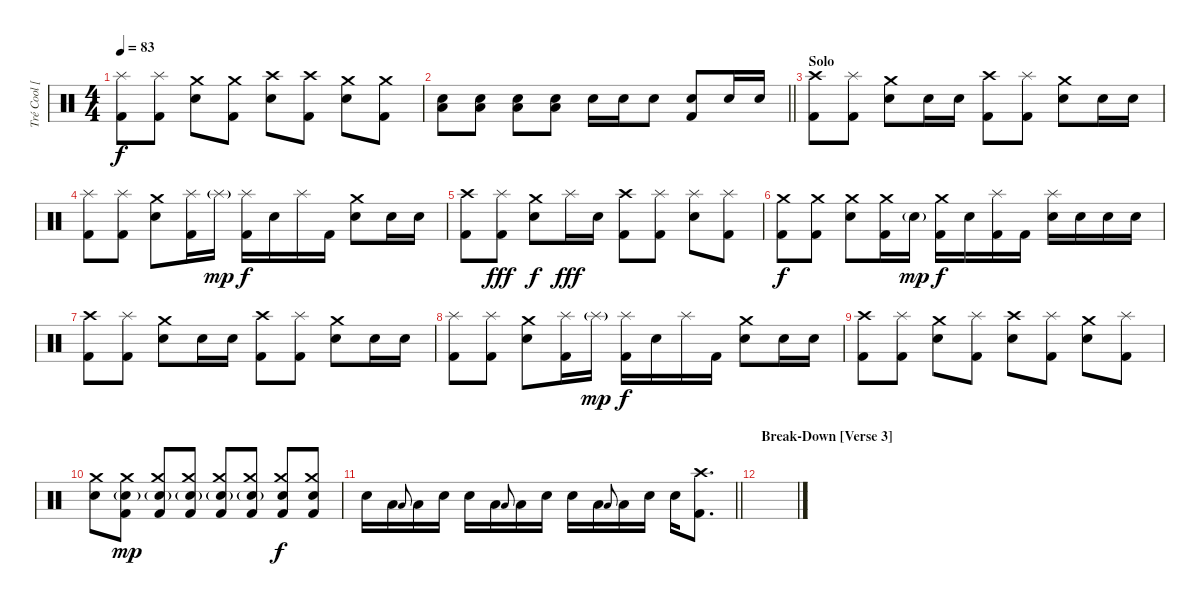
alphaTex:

\track ("Tré Cool [Drums]" "Tré Cool [") {instrument percussion}
\staff {score}
\articulation defaults
\ts (4 4)
\tempo 83
\clef neutral
\ks c
("Splash (hit)" "Kick (hit) 2").8{dy f} ("Splash (hit)" "Kick (hit) 2").8 ("Crash medium (hit)" "Electric Snare (hit)").8 ("Crash medium (hit)" "Kick (hit) 2").8 ("Crash high (hit)" "Electric Snare (hit)").8 ("Crash high (hit)" "Kick (hit) 2").8 ("Crash medium (hit)" "Electric Snare (hit)").8 ("Crash medium (hit)" "Kick (hit) 2").8 |
\barLineRight lightlight
("Low Floor Tom (hit)" "Electric Snare (hit)").8 ("Low Floor Tom (hit)" "Electric Snare (hit)").8 ("Low Floor Tom (hit)" "Electric Snare (hit)").8 ("Low Floor Tom (hit)" "Electric Snare (hit)").8 "Electric Snare (hit)".16 "Electric Snare (hit)".16 "Electric Snare (hit)".8 ("Electric Snare (hit)" "Kick (hit) 2").8 "Electric Snare (hit)".16 "Electric Snare (hit)".16 |
\section ("" "Solo")
("Crash high (hit)" "Kick (hit) 2").8 ("Splash (hit)" "Kick (hit) 2").8 ("Crash medium (hit)" "Electric Snare (hit)").8 "Electric Snare (hit)".16 "Electric Snare (hit)".16 ("Crash high (hit)" "Kick (hit) 2").8 ("Splash (hit)" "Kick (hit) 2").8 ("Crash medium (hit)" "Electric Snare (hit)").8 "Electric Snare (hit)".16 "Electric Snare (hit)".16 |
("Splash (hit)" "Kick (hit) 2").8 ("Splash (hit)" "Kick (hit) 2").8 ("Crash medium (hit)" "Electric Snare (hit)").8 ("Splash (hit)" "Kick (hit) 2").16 "Splash (hit)"{g}.16{dy mp} ("Splash (hit)" "Kick (hit) 2").16{dy f} "Electric Snare (hit)".16 "Splash (hit)".16 "Kick (hit) 2".16 ("Crash medium (hit)" "Electric Snare (hit)").8 "Electric Snare (hit)".16 "Electric Snare (hit)".16 |
("Crash high (hit)" "Kick (hit) 2").8 ("Splash (hit)" "Kick (hit) 2").8{dy fff} ("Crash medium (hit)" "Electric Snare (hit)").8{dy f} "Splash (hit)".16{dy fff} "Electric Snare (hit)".16 ("Crash high (hit)" "Kick (hit) 2").8 ("Splash (hit)" "Kick (hit) 2").8 ("Splash (hit)" "Electric Snare (hit)").8 ("Splash (hit)" "Kick (hit) 2").8 |
("Crash medium (hit)" "Kick (hit) 2").8{dy f} ("Crash medium (hit)" "Kick (hit) 2").8 ("Crash medium (hit)" "Electric Snare (hit)").8 ("Crash medium (hit)" "Kick (hit) 2").16 "Electric Snare (hit)"{g}.16{dy mp} ("Crash medium (hit)" "Kick (hit) 2").16{dy f} "Electric Snare (hit)".16 ("Splash (hit)" "Kick (hit) 2").16 "Kick (hit) 2".16 ("Splash (hit)" "Electric Snare (hit)").16 "Electric Snare (hit)".16 "Electric Snare (hit)".16 "Electric Snare (hit)".16 |
("Crash high (hit)" "Kick (hit) 2").8 ("Splash (hit)" "Kick (hit) 2").8 ("Crash medium (hit)" "Electric Snare (hit)").8 "Electric Snare (hit)".16 "Electric Snare (hit)".16 ("Crash high (hit)" "Kick (hit) 2").8 ("Splash (hit)" "Kick (hit) 2").8 ("Crash medium (hit)" "Electric Snare (hit)").8 "Electric Snare (hit)".16 "Electric Snare (hit)".16 |
("Splash (hit)" "Kick (hit) 2").8 ("Splash (hit)" "Kick (hit) 2").8 ("Crash medium (hit)" "Electric Snare (hit)").8 ("Splash (hit)" "Kick (hit) 2").16 "Splash (hit)"{g}.16{dy mp} ("Splash (hit)" "Kick (hit) 2").16{dy f} "Electric Snare (hit)".16 "Splash (hit)".16 "Kick (hit) 2".16 ("Crash medium (hit)" "Electric Snare (hit)").8 "Electric Snare (hit)".16 "Electric Snare (hit)".16 |
("Crash high (hit)" "Kick (hit) 2").8 ("Splash (hit)" "Kick (hit) 2").8 ("Crash medium (hit)" "Electric Snare (hit)").8 ("Splash (hit)" "Kick (hit) 2").8 ("Crash high (hit)" "Electric Snare (hit)").8 ("Splash (hit)" "Kick (hit) 2").8 ("Crash medium (hit)" "Electric Snare (hit)").8 ("Splash (hit)" "Kick (hit) 2").8 |
("Crash medium (hit)" "Electric Snare (hit)").8 ("Crash medium (hit)" "Electric Snare (hit)"{g} "Kick (hit) 2").8{dy mp} ("Crash medium (hit)" "Electric Snare (hit)"{g} "Kick (hit) 2").8 ("Crash medium (hit)" "Electric Snare (hit)"{g} "Kick (hit) 2").8 ("Crash medium (hit)" "Electric Snare (hit)"{g} "Kick (hit) 2").8 ("Crash medium (hit)" "Electric Snare (hit)"{g} "Kick (hit) 2").8 ("Crash medium (hit)" "Electric Snare (hit)" "Kick (hit) 2").8{dy f} ("Crash medium (hit)" "Electric Snare (hit)" "Kick (hit) 2").8 |
\barLineRight lightlight "Electric Snare (hit)".16 "Low Tom (hit)".16 "Low Floor Tom (hit)".8{gr onbeat} "Low Floor Tom (hit)".16 "Electric Snare (hit)".16 "Electric Snare (hit)".16 "Low Tom (hit)".16 "Low Floor Tom (hit)".8{gr onbeat} "Low Floor Tom (hit)".16 "Electric Snare (hit)".16 "Electric Snare (hit)".16 "Low Tom (hit)".16 "Low Floor Tom (hit)".8{gr onbeat} "Low Floor Tom (hit)".16 "Electric Snare (hit)".16 "Electric Snare (hit)".16
("Crash high (hit)" "Kick (hit) 2").8{d} |
\section ("" "Break-Down [Verse 3]")
